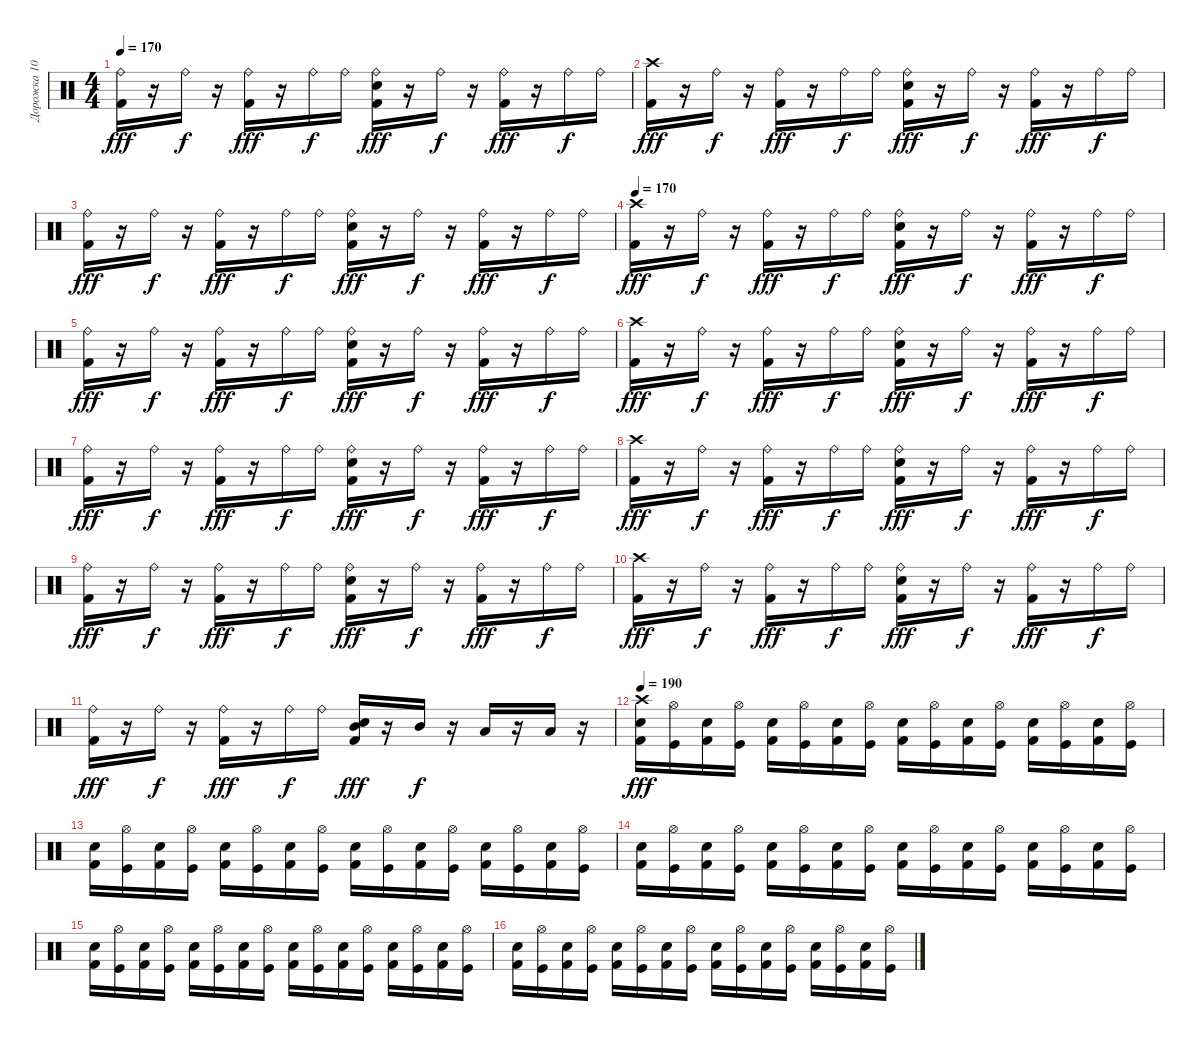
\track ("Дорожка 10" "Дорожка 10") {instrument percussion}
\staff {score}
\articulation defaults
\ts (4 4)
\tempo 170
\clef neutral
\ks c
("Ride (bell)" "Kick (hit) 2").16{dy fff} r.16 "Ride (bell)".16{dy f} r.16 ("Kick (hit) 2" "Ride (bell)").16{dy fff} r.16 "Ride (bell)".16{dy f} "Ride (bell)".16 ("Electric Snare (hit)" "Ride (bell)" "Kick (hit) 2").16{dy fff} r.16 "Ride (bell)".16{dy f} r.16 ("Ride (bell)" "Kick (hit) 2").16{dy fff} r.16 "Ride (bell)".16{dy f} "Ride (bell)".16 |
("Crash high (hit)" "Kick (hit) 2").16{dy fff} r.16 "Ride (bell)".16{dy f} r.16 ("Ride (bell)" "Kick (hit) 2").16{dy fff} r.16 "Ride (bell)".16{dy f} "Ride (bell)".16 ("Ride (bell)" "Kick (hit) 2" "Electric Snare (hit)").16{dy fff} r.16 "Ride (bell)".16{dy f} r.16 ("Ride (bell)" "Kick (hit) 2").16{dy fff} r.16 "Ride (bell)".16{dy f} "Ride (bell)".16 |
("Ride (bell)" "Kick (hit) 2").16{dy fff} r.16 "Ride (bell)".16{dy f} r.16 ("Kick (hit) 2" "Ride (bell)").16{dy fff} r.16 "Ride (bell)".16{dy f} "Ride (bell)".16 ("Ride (bell)" "Electric Snare (hit)" "Kick (hit) 2").16{dy fff} r.16 "Ride (bell)".16{dy f} r.16 ("Kick (hit) 2" "Ride (bell)").16{dy fff} r.16 "Ride (bell)".16{dy f} "Ride (bell)".16 |
\tempo 170
("Kick (hit) 2" "Crash high (hit)").16{dy fff} r.16 "Ride (bell)".16{dy f} r.16 ("Kick (hit) 2" "Ride (bell)").16{dy fff} r.16 "Ride (bell)".16{dy f} "Ride (bell)".16 ("Ride (bell)" "Electric Snare (hit)" "Kick (hit) 2").16{dy fff} r.16 "Ride (bell)".16{dy f} r.16 ("Ride (bell)" "Kick (hit) 2").16{dy fff} r.16 "Ride (bell)".16{dy f} "Ride (bell)".16 |
("Kick (hit) 2" "Ride (bell)").16{dy fff} r.16 "Ride (bell)".16{dy f} r.16 ("Kick (hit) 2" "Ride (bell)").16{dy fff} r.16 "Ride (bell)".16{dy f} "Ride (bell)".16 ("Kick (hit) 2" "Ride (bell)" "Electric Snare (hit)").16{dy fff} r.16 "Ride (bell)".16{dy f} r.16 ("Kick (hit) 2" "Ride (bell)").16{dy fff} r.16 "Ride (bell)".16{dy f} "Ride (bell)".16 |
("Kick (hit) 2" "Crash high (hit)").16{dy fff} r.16 "Ride (bell)".16{dy f} r.16 ("Kick (hit) 2" "Ride (bell)").16{dy fff} r.16 "Ride (bell)".16{dy f} "Ride (bell)".16 ("Ride (bell)" "Kick (hit) 2" "Electric Snare (hit)").16{dy fff} r.16 "Ride (bell)".16{dy f} r.16 ("Kick (hit) 2" "Ride (bell)").16{dy fff} r.16 "Ride (bell)".16{dy f} "Ride (bell)".16 |
("Ride (bell)" "Kick (hit) 2").16{dy fff} r.16 "Ride (bell)".16{dy f} r.16 ("Kick (hit) 2" "Ride (bell)").16{dy fff} r.16 "Ride (bell)".16{dy f} "Ride (bell)".16 ("Ride (bell)" "Kick (hit) 2" "Electric Snare (hit)").16{dy fff} r.16 "Ride (bell)".16{dy f} r.16 ("Ride (bell)" "Kick (hit) 2").16{dy fff} r.16 "Ride (bell)".16{dy f} "Ride (bell)".16 |
("Crash high (hit)" "Kick (hit) 2").16{dy fff} r.16 "Ride (bell)".16{dy f} r.16 ("Kick (hit) 2" "Ride (bell)").16{dy fff} r.16 "Ride (bell)".16{dy f} "Ride (bell)".16 ("Electric Snare (hit)" "Ride (bell)" "Kick (hit) 2").16{dy fff} r.16 "Ride (bell)".16{dy f} r.16 ("Kick (hit) 2" "Ride (bell)").16{dy fff} r.16 "Ride (bell)".16{dy f} "Ride (bell)".16 |
("Ride (bell)" "Kick (hit) 2").16{dy fff} r.16 "Ride (bell)".16{dy f} r.16 ("Ride (bell)" "Kick (hit) 2").16{dy fff} r.16 "Ride (bell)".16{dy f} "Ride (bell)".16 ("Kick (hit) 2" "Electric Snare (hit)" "Ride (bell)").16{dy fff} r.16 "Ride (bell)".16{dy f} r.16 ("Ride (bell)" "Kick (hit) 2").16{dy fff} r.16 "Ride (bell)".16{dy f} "Ride (bell)".16 |
("Crash high (hit)" "Kick (hit) 2").16{dy fff} r.16 "Ride (bell)".16{dy f} r.16 ("Kick (hit) 2" "Ride (bell)").16{dy fff} r.16 "Ride (bell)".16{dy f} "Ride (bell)".16 ("Electric Snare (hit)" "Kick (hit) 2" "Ride (bell)").16{dy fff} r.16 "Ride (bell)".16{dy f} r.16 ("Kick (hit) 2" "Ride (bell)").16{dy fff} r.16 "Ride (bell)".16{dy f} "Ride (bell)".16 |
("Kick (hit) 2" "Ride (bell)").16{dy fff} r.16 "Ride (bell)".16{dy f} r.16 ("Kick (hit) 2" "Ride (bell)").16{dy fff} r.16 "Ride (bell)".16{dy f} "Ride (bell)".16 ("Electric Snare (hit)" "Mid Tom (hit)" "Kick (hit) 2").16{dy fff} r.16 "Mid Tom (hit)".16{dy f} r.16 "Low Tom (hit)".16 r.16 "Low Tom (hit)".16 r.16 |
\tempo 190
("Electric Snare (hit)" "Crash high (hit)" "Kick (hit) 2").16{dy fff} ("Kick (hit)" "Hi-Hat (open)").16 ("Kick (hit) 2" "Electric Snare (hit)").16 ("Hi-Hat (open)" "Kick (hit)").16 ("Kick (hit) 2" "Electric Snare (hit)").16 ("Hi-Hat (open)" "Kick (hit)").16 ("Electric Snare (hit)" "Kick (hit) 2").16 ("Hi-Hat (open)" "Kick (hit)").16 ("Kick (hit) 2" "Electric Snare (hit)").16 ("Kick (hit)" "Hi-Hat (open)").16 ("Electric Snare (hit)" "Kick (hit) 2").16 ("Kick (hit)" "Hi-Hat (open)").16 ("Kick (hit) 2" "Electric Snare (hit)").16 ("Kick (hit)" "Hi-Hat (open)").16 ("Electric Snare (hit)" "Kick (hit) 2").16 ("Hi-Hat (open)" "Kick (hit)").16 |
("Kick (hit) 2" "Electric Snare (hit)").16 ("Hi-Hat (open)" "Kick (hit)").16 ("Kick (hit) 2" "Electric Snare (hit)").16 ("Kick (hit)" "Hi-Hat (open)").16 ("Electric Snare (hit)" "Kick (hit) 2").16 ("Kick (hit)" "Hi-Hat (open)").16 ("Kick (hit) 2" "Electric Snare (hit)").16 ("Hi-Hat (open)" "Kick (hit)").16 ("Electric Snare (hit)" "Kick (hit) 2").16 ("Kick (hit)" "Hi-Hat (open)").16 ("Kick (hit) 2" "Electric Snare (hit)").16 ("Kick (hit)" "Hi-Hat (open)").16 ("Kick (hit) 2" "Electric Snare (hit)").16 ("Kick (hit)" "Hi-Hat (open)").16 ("Kick (hit) 2" "Electric Snare (hit)").16 ("Kick (hit)" "Hi-Hat (open)").16 |
("Electric Snare (hit)" "Kick (hit) 2").16 ("Kick (hit)" "Hi-Hat (open)").16 ("Electric Snare (hit)" "Kick (hit) 2").16 ("Hi-Hat (open)" "Kick (hit)").16 ("Electric Snare (hit)" "Kick (hit) 2").16 ("Hi-Hat (open)" "Kick (hit)").16 ("Kick (hit) 2" "Electric Snare (hit)").16 ("Kick (hit)" "Hi-Hat (open)").16 ("Kick (hit) 2" "Electric Snare (hit)").16 ("Hi-Hat (open)" "Kick (hit)").16 ("Electric Snare (hit)" "Kick (hit) 2").16 ("Kick (hit)" "Hi-Hat (open)").16 ("Electric Snare (hit)" "Kick (hit) 2").16 ("Kick (hit)" "Hi-Hat (open)").16 ("Kick (hit) 2" "Electric Snare (hit)").16 ("Kick (hit)" "Hi-Hat (open)").16 |
("Electric Snare (hit)" "Kick (hit) 2").16 ("Hi-Hat (open)" "Kick (hit)").16 ("Kick (hit) 2" "Electric Snare (hit)").16 ("Hi-Hat (open)" "Kick (hit)").16 ("Kick (hit) 2" "Electric Snare (hit)").16 ("Kick (hit)" "Hi-Hat (open)").16 ("Electric Snare (hit)" "Kick (hit) 2").16 ("Kick (hit)" "Hi-Hat (open)").16 ("Electric Snare (hit)" "Kick (hit) 2").16 ("Kick (hit)" "Hi-Hat (open)").16 ("Kick (hit) 2" "Electric Snare (hit)").16 ("Hi-Hat (open)" "Kick (hit)").16 ("Electric Snare (hit)" "Kick (hit) 2").16 ("Kick (hit)" "Hi-Hat (open)").16 ("Electric Snare (hit)" "Kick (hit) 2").16 ("Kick (hit)" "Hi-Hat (open)").16 |
("Kick (hit) 2" "Electric Snare (hit)").16 ("Kick (hit)" "Hi-Hat (open)").16 ("Electric Snare (hit)" "Kick (hit) 2").16 ("Hi-Hat (open)" "Kick (hit)").16 ("Kick (hit) 2" "Electric Snare (hit)").16 ("Hi-Hat (open)" "Kick (hit)").16 ("Electric Snare (hit)" "Kick (hit) 2").16 ("Kick (hit)" "Hi-Hat (open)").16 ("Electric Snare (hit)" "Kick (hit) 2").16 ("Hi-Hat (open)" "Kick (hit)").16 ("Electric Snare (hit)" "Kick (hit) 2").16 ("Kick (hit)" "Hi-Hat (open)").16 ("Electric Snare (hit)" "Kick (hit) 2").16 ("Hi-Hat (open)" "Kick (hit)").16 ("Kick (hit) 2" "Electric Snare (hit)").16 ("Kick (hit)" "Hi-Hat (open)").16
